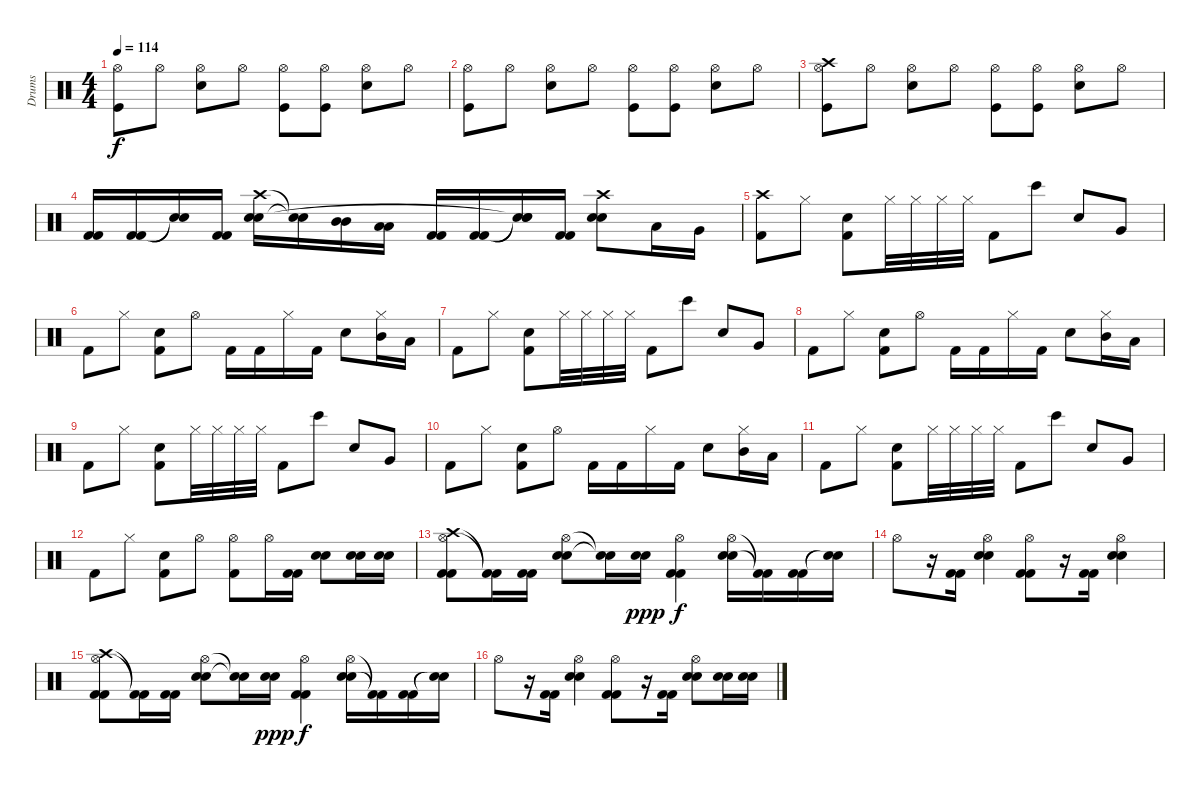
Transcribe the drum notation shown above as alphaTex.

\track ("Drums               " "Drums     ") {instrument percussion}
\staff {score}
\articulation defaults
\ts (4 4)
\tempo 114
\clef neutral
\ks c
("Kick (hit)" "Hi-Hat (open)").8{dy f} "Hi-Hat (open)".8 ("Snare (hit) 2" "Hi-Hat (open)").8 "Hi-Hat (open)".8 ("Kick (hit)" "Hi-Hat (open)").8 ("Kick (hit)" "Hi-Hat (open)").8 ("Snare (hit) 2" "Hi-Hat (open)").8 "Hi-Hat (open)".8 |
("Kick (hit)" "Hi-Hat (open)").8 "Hi-Hat (open)".8 ("Snare (hit) 2" "Hi-Hat (open)").8 "Hi-Hat (open)".8 ("Kick (hit)" "Hi-Hat (open)").8 ("Kick (hit)" "Hi-Hat (open)").8 ("Snare (hit) 2" "Hi-Hat (open)").8 "Hi-Hat (open)".8 |
("Kick (hit)" "Hi-Hat (open)" "Crash high (hit)").8 "Hi-Hat (open)".8 ("Snare (hit) 2" "Hi-Hat (open)").8 "Hi-Hat (open)".8 ("Kick (hit)" "Hi-Hat (open)").8 ("Kick (hit)" "Hi-Hat (open)").8 ("Snare (hit) 2" "Hi-Hat (open)").8 "Hi-Hat (open)".8 |
("Kick (hit) 2" "Kick (hit) 2").16 ("Kick (hit) 2" "Kick (hit) 2").16 ("Snare (hit)"{t} "Snare (hit)"{t}).16 ("Kick (hit) 2" "Kick (hit) 2").16 ("Crash high (hit)" "Snare (hit) 2" "Snare (hit) 2").16 ("Snare (hit)"{t} "Snare (hit)"{t}).16 ("Mid Tom (hit)" "Mid Tom (hit)").16 ("Low Tom (hit)" "Low Tom (hit)").16 ("Kick (hit) 2" "Kick (hit) 2").16 ("Kick (hit) 2" "Kick (hit) 2").16 ("Snare (hit)"{t} "Snare (hit)"{t} "Snare (hit)"{t}).16 ("Kick (hit) 2" "Kick (hit) 2").16 ("Crash high (hit)" "Snare (hit) 2" "Snare (hit) 2").8 "Low Tom (hit)".16 "Very Low Tom (hit)".16 |
("Crash high (hit)" "Kick (hit) 2").8 "Hi-Hat (closed)".8 ("Snare (hit) 2" "Kick (hit) 2").8 "Hi-Hat (closed)".32 "Hi-Hat (closed)".32 "Hi-Hat (closed)".32 "Hi-Hat (closed)".32 "Kick (hit) 2".8 "Bongo High (hit)".8 "Snare (hit) 2".8 "Very Low Tom (hit)".8 |
"Kick (hit) 2".8 "Hi-Hat (closed)".8 ("Snare (hit) 2" "Kick (hit) 2").8 "Hi-Hat (open)".8 "Kick (hit) 2".16 "Kick (hit) 2".16 "Hi-Hat (closed)".16 "Kick (hit) 2".16 "Snare (hit) 2".8 ("Hi-Hat (closed)" "Mid Tom (hit)").16 "Low Tom (hit)".16 |
"Kick (hit) 2".8 "Hi-Hat (closed)".8 ("Snare (hit) 2" "Kick (hit) 2").8 "Hi-Hat (closed)".32 "Hi-Hat (closed)".32 "Hi-Hat (closed)".32 "Hi-Hat (closed)".32 "Kick (hit) 2".8 "Bongo High (hit)".8 "Snare (hit) 2".8 "Very Low Tom (hit)".8 |
"Kick (hit) 2".8 "Hi-Hat (closed)".8 ("Snare (hit) 2" "Kick (hit) 2").8 "Hi-Hat (open)".8 "Kick (hit) 2".16 "Kick (hit) 2".16 "Hi-Hat (closed)".16 "Kick (hit) 2".16 "Snare (hit) 2".8 ("Hi-Hat (closed)" "Mid Tom (hit)").16 "Low Tom (hit)".16 |
"Kick (hit) 2".8 "Hi-Hat (closed)".8 ("Snare (hit) 2" "Kick (hit) 2").8 "Hi-Hat (closed)".32 "Hi-Hat (closed)".32 "Hi-Hat (closed)".32 "Hi-Hat (closed)".32 "Kick (hit) 2".8 "Bongo High (hit)".8 "Snare (hit) 2".8 "Very Low Tom (hit)".8 |
"Kick (hit) 2".8 "Hi-Hat (closed)".8 ("Snare (hit) 2" "Kick (hit) 2").8 "Hi-Hat (open)".8 "Kick (hit) 2".16 "Kick (hit) 2".16 "Hi-Hat (closed)".16 "Kick (hit) 2".16 "Snare (hit) 2".8 ("Hi-Hat (closed)" "Mid Tom (hit)").16 "Low Tom (hit)".16 |
"Kick (hit) 2".8 "Hi-Hat (closed)".8 ("Snare (hit) 2" "Kick (hit) 2").8 "Hi-Hat (closed)".32 "Hi-Hat (closed)".32 "Hi-Hat (closed)".32 "Hi-Hat (closed)".32 "Kick (hit) 2".8 "Bongo High (hit)".8 "Snare (hit) 2".8 "Very Low Tom (hit)".8 |
"Kick (hit) 2".8 "Hi-Hat (closed)".8 ("Snare (hit) 2" "Kick (hit) 2").8 "Hi-Hat (open)".8 ("Hi-Hat (open)" "Kick (hit) 2").8 "Hi-Hat (open)".16 ("Kick (hit) 2" "Kick (hit) 2").16 ("Snare (hit) 2" "Snare (hit) 2").8 ("Snare (hit) 2" "Snare (hit) 2").16 ("Snare (hit) 2" "Snare (hit) 2").16 |
("Crash high (hit)" "Hi-Hat (open)" "Kick (hit) 2" "Kick (hit) 2").8 ("Kick (hit) 2"{t} "Kick (hit) 2"{t}).16 ("Kick (hit) 2" "Kick (hit) 2").16 ("Hi-Hat (open)" "Snare (hit) 2" "Snare (hit) 2").8 ("Snare (hit)"{t} "Snare (hit)"{t}).16 ("Snare (hit) 2" "Snare (hit) 2").16{dy ppp} ("Hi-Hat (open)" "Kick (hit) 2" "Kick (hit) 2").4{dy f} ("Hi-Hat (open)" "Snare (hit) 2" "Snare (hit) 2").16 ("Kick (hit) 2"{t} "Kick (hit) 2"{t}).16 ("Kick (hit) 2" "Kick (hit) 2").16 ("Snare (hit)"{t} "Snare (hit)"{t}).16 |
"Hi-Hat (open)".8 r.16 ("Kick (hit) 2" "Kick (hit) 2").16 ("Hi-Hat (open)" "Snare (hit) 2" "Snare (hit) 2").4 ("Hi-Hat (open)" "Kick (hit) 2" "Kick (hit) 2").8 r.16 ("Kick (hit) 2" "Kick (hit) 2").16 ("Hi-Hat (open)" "Snare (hit) 2" "Snare (hit) 2").4 |
("Crash high (hit)" "Hi-Hat (open)" "Kick (hit) 2" "Kick (hit) 2").8 ("Kick (hit) 2"{t} "Kick (hit) 2"{t}).16 ("Kick (hit) 2" "Kick (hit) 2").16 ("Hi-Hat (open)" "Snare (hit) 2" "Snare (hit) 2").8 ("Snare (hit)"{t} "Snare (hit)"{t}).16 ("Snare (hit) 2" "Snare (hit) 2").16{dy ppp} ("Hi-Hat (open)" "Kick (hit) 2" "Kick (hit) 2").4{dy f} ("Hi-Hat (open)" "Snare (hit) 2" "Snare (hit) 2").16 ("Kick (hit) 2"{t} "Kick (hit) 2"{t}).16 ("Kick (hit) 2" "Kick (hit) 2").16 ("Snare (hit)"{t} "Snare (hit)"{t}).16 |
"Hi-Hat (open)".8 r.16 ("Kick (hit) 2" "Kick (hit) 2").16 ("Hi-Hat (open)" "Snare (hit) 2" "Snare (hit) 2").4 ("Hi-Hat (open)" "Kick (hit) 2" "Kick (hit) 2").8 r.16 ("Kick (hit) 2" "Kick (hit) 2").16 ("Hi-Hat (open)" "Snare (hit) 2" "Snare (hit) 2").8 ("Snare (hit) 2" "Snare (hit) 2").16 ("Snare (hit) 2" "Snare (hit) 2").16
